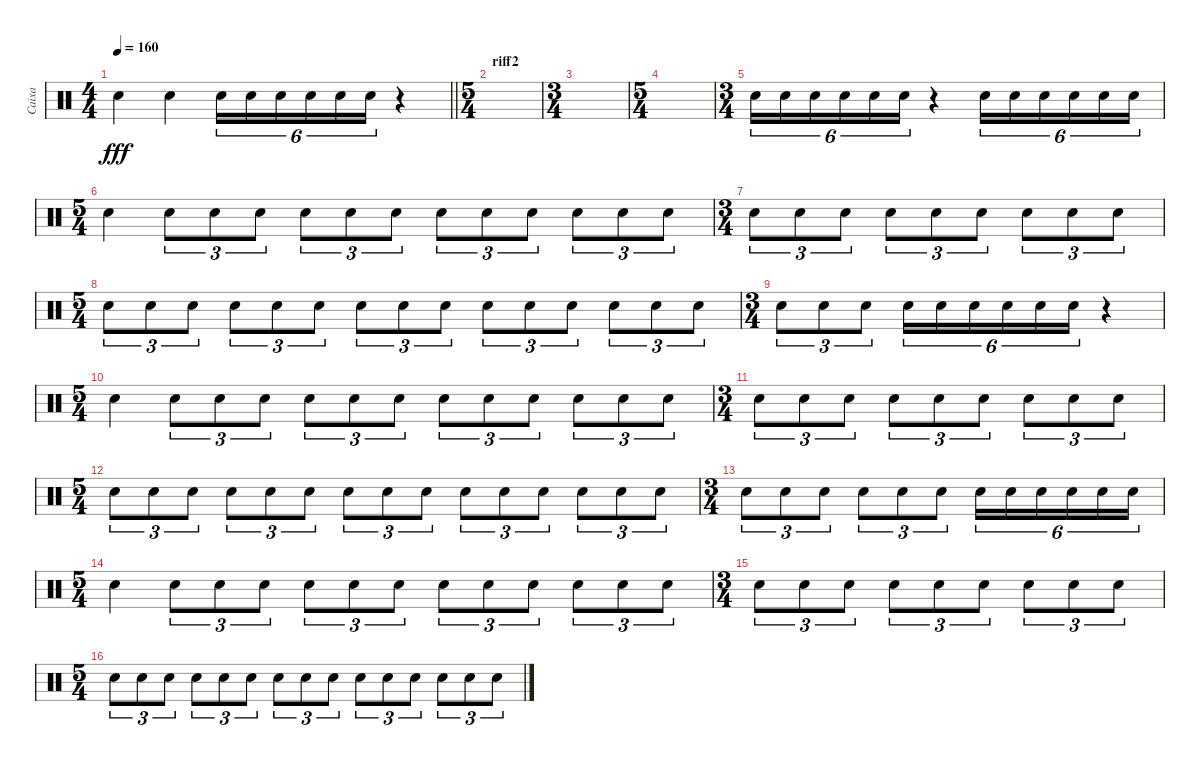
\track ("Caixa" "Caixa") {instrument percussion}
\staff {score}
\articulation defaults
\ts (4 4)
\tempo 160
\clef neutral
\barLineRight lightlight
\ks c "Electric Snare (hit)".4{dy fff} "Electric Snare (hit)".4 "Electric Snare (hit)".16{tu (6 4)} "Electric Snare (hit)".16{tu (6 4)} "Electric Snare (hit)".16{tu (6 4)} "Electric Snare (hit)".16{tu (6 4)} "Electric Snare (hit)".16{tu (6 4)} "Electric Snare (hit)".16{tu (6 4)}
r.4 |
\ts (5 4)
\section ("" "riff2")
|
\ts (3 4)
|
\ts (5 4)
|
\ts (3 4)
"Electric Snare (hit)".16{tu (6 4)} "Electric Snare (hit)".16{tu (6 4)} "Electric Snare (hit)".16{tu (6 4)} "Electric Snare (hit)".16{tu (6 4)} "Electric Snare (hit)".16{tu (6 4)} "Electric Snare (hit)".16{tu (6 4)} r.4 "Electric Snare (hit)".16{tu (6 4)} "Electric Snare (hit)".16{tu (6 4)} "Electric Snare (hit)".16{tu (6 4)} "Electric Snare (hit)".16{tu (6 4)} "Electric Snare (hit)".16{tu (6 4)} "Electric Snare (hit)".16{tu (6 4)} |
\ts (5 4)
"Electric Snare (hit)".4 "Electric Snare (hit)".8{tu (3 2)} "Electric Snare (hit)".8{tu (3 2)} "Electric Snare (hit)".8{tu (3 2)} "Electric Snare (hit)".8{tu (3 2)} "Electric Snare (hit)".8{tu (3 2)} "Electric Snare (hit)".8{tu (3 2)} "Electric Snare (hit)".8{tu (3 2)} "Electric Snare (hit)".8{tu (3 2)} "Electric Snare (hit)".8{tu (3 2)} "Electric Snare (hit)".8{tu (3 2)} "Electric Snare (hit)".8{tu (3 2)} "Electric Snare (hit)".8{tu (3 2)} |
\ts (3 4)
"Electric Snare (hit)".8{tu (3 2)} "Electric Snare (hit)".8{tu (3 2)} "Electric Snare (hit)".8{tu (3 2)} "Electric Snare (hit)".8{tu (3 2)} "Electric Snare (hit)".8{tu (3 2)} "Electric Snare (hit)".8{tu (3 2)} "Electric Snare (hit)".8{tu (3 2)} "Electric Snare (hit)".8{tu (3 2)} "Electric Snare (hit)".8{tu (3 2)} |
\ts (5 4)
"Electric Snare (hit)".8{tu (3 2)} "Electric Snare (hit)".8{tu (3 2)} "Electric Snare (hit)".8{tu (3 2)} "Electric Snare (hit)".8{tu (3 2)} "Electric Snare (hit)".8{tu (3 2)} "Electric Snare (hit)".8{tu (3 2)} "Electric Snare (hit)".8{tu (3 2)} "Electric Snare (hit)".8{tu (3 2)} "Electric Snare (hit)".8{tu (3 2)} "Electric Snare (hit)".8{tu (3 2)} "Electric Snare (hit)".8{tu (3 2)} "Electric Snare (hit)".8{tu (3 2)} "Electric Snare (hit)".8{tu (3 2)} "Electric Snare (hit)".8{tu (3 2)} "Electric Snare (hit)".8{tu (3 2)} |
\ts (3 4)
"Electric Snare (hit)".8{tu (3 2)} "Electric Snare (hit)".8{tu (3 2)} "Electric Snare (hit)".8{tu (3 2)} "Electric Snare (hit)".16{tu (6 4)} "Electric Snare (hit)".16{tu (6 4)} "Electric Snare (hit)".16{tu (6 4)} "Electric Snare (hit)".16{tu (6 4)} "Electric Snare (hit)".16{tu (6 4)} "Electric Snare (hit)".16{tu (6 4)} r.4 |
\ts (5 4)
"Electric Snare (hit)".4 "Electric Snare (hit)".8{tu (3 2)} "Electric Snare (hit)".8{tu (3 2)} "Electric Snare (hit)".8{tu (3 2)} "Electric Snare (hit)".8{tu (3 2)} "Electric Snare (hit)".8{tu (3 2)} "Electric Snare (hit)".8{tu (3 2)} "Electric Snare (hit)".8{tu (3 2)} "Electric Snare (hit)".8{tu (3 2)} "Electric Snare (hit)".8{tu (3 2)} "Electric Snare (hit)".8{tu (3 2)} "Electric Snare (hit)".8{tu (3 2)} "Electric Snare (hit)".8{tu (3 2)} |
\ts (3 4)
"Electric Snare (hit)".8{tu (3 2)} "Electric Snare (hit)".8{tu (3 2)} "Electric Snare (hit)".8{tu (3 2)} "Electric Snare (hit)".8{tu (3 2)} "Electric Snare (hit)".8{tu (3 2)} "Electric Snare (hit)".8{tu (3 2)} "Electric Snare (hit)".8{tu (3 2)} "Electric Snare (hit)".8{tu (3 2)} "Electric Snare (hit)".8{tu (3 2)} |
\ts (5 4)
"Electric Snare (hit)".8{tu (3 2)} "Electric Snare (hit)".8{tu (3 2)} "Electric Snare (hit)".8{tu (3 2)} "Electric Snare (hit)".8{tu (3 2)} "Electric Snare (hit)".8{tu (3 2)} "Electric Snare (hit)".8{tu (3 2)} "Electric Snare (hit)".8{tu (3 2)} "Electric Snare (hit)".8{tu (3 2)} "Electric Snare (hit)".8{tu (3 2)} "Electric Snare (hit)".8{tu (3 2)} "Electric Snare (hit)".8{tu (3 2)} "Electric Snare (hit)".8{tu (3 2)} "Electric Snare (hit)".8{tu (3 2)} "Electric Snare (hit)".8{tu (3 2)} "Electric Snare (hit)".8{tu (3 2)} |
\ts (3 4)
"Electric Snare (hit)".8{tu (3 2)} "Electric Snare (hit)".8{tu (3 2)} "Electric Snare (hit)".8{tu (3 2)} "Electric Snare (hit)".8{tu (3 2)} "Electric Snare (hit)".8{tu (3 2)} "Electric Snare (hit)".8{tu (3 2)} "Electric Snare (hit)".16{tu (6 4)} "Electric Snare (hit)".16{tu (6 4)} "Electric Snare (hit)".16{tu (6 4)} "Electric Snare (hit)".16{tu (6 4)} "Electric Snare (hit)".16{tu (6 4)} "Electric Snare (hit)".16{tu (6 4)} |
\ts (5 4)
"Electric Snare (hit)".4 "Electric Snare (hit)".8{tu (3 2)} "Electric Snare (hit)".8{tu (3 2)} "Electric Snare (hit)".8{tu (3 2)} "Electric Snare (hit)".8{tu (3 2)} "Electric Snare (hit)".8{tu (3 2)} "Electric Snare (hit)".8{tu (3 2)} "Electric Snare (hit)".8{tu (3 2)} "Electric Snare (hit)".8{tu (3 2)} "Electric Snare (hit)".8{tu (3 2)} "Electric Snare (hit)".8{tu (3 2)} "Electric Snare (hit)".8{tu (3 2)} "Electric Snare (hit)".8{tu (3 2)} |
\ts (3 4)
"Electric Snare (hit)".8{tu (3 2)} "Electric Snare (hit)".8{tu (3 2)} "Electric Snare (hit)".8{tu (3 2)} "Electric Snare (hit)".8{tu (3 2)} "Electric Snare (hit)".8{tu (3 2)} "Electric Snare (hit)".8{tu (3 2)} "Electric Snare (hit)".8{tu (3 2)} "Electric Snare (hit)".8{tu (3 2)} "Electric Snare (hit)".8{tu (3 2)} |
\ts (5 4)
"Electric Snare (hit)".8{tu (3 2)} "Electric Snare (hit)".8{tu (3 2)} "Electric Snare (hit)".8{tu (3 2)} "Electric Snare (hit)".8{tu (3 2)} "Electric Snare (hit)".8{tu (3 2)} "Electric Snare (hit)".8{tu (3 2)} "Electric Snare (hit)".8{tu (3 2)} "Electric Snare (hit)".8{tu (3 2)} "Electric Snare (hit)".8{tu (3 2)} "Electric Snare (hit)".8{tu (3 2)} "Electric Snare (hit)".8{tu (3 2)} "Electric Snare (hit)".8{tu (3 2)} "Electric Snare (hit)".8{tu (3 2)} "Electric Snare (hit)".8{tu (3 2)} "Electric Snare (hit)".8{tu (3 2)}
